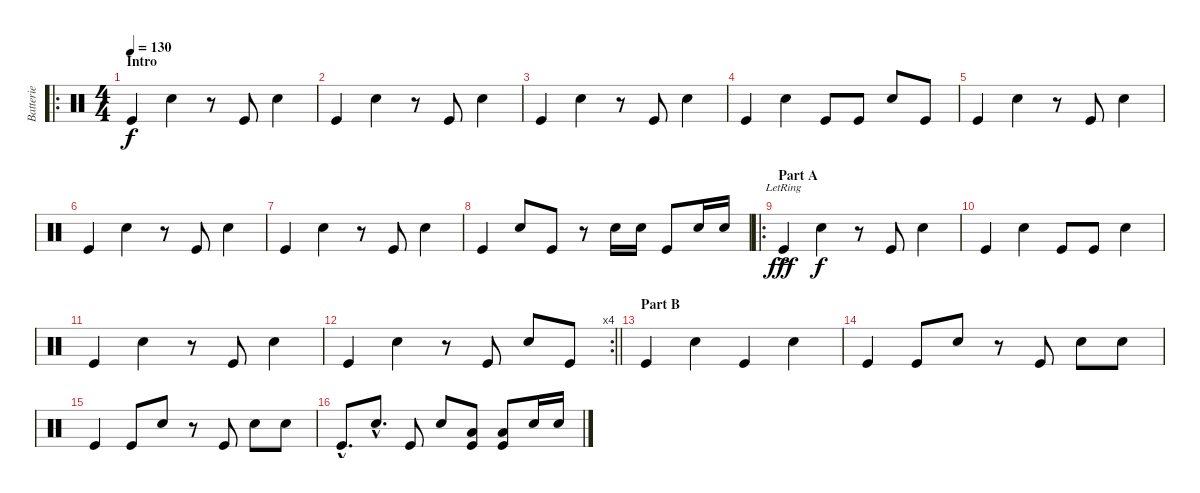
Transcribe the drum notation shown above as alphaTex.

\track ("Batterie" "Batterie") {instrument percussion}
\staff {score}
\articulation defaults
\ro
\ts (4 4)
\section ("" "Intro")
\tempo 130
\clef neutral
\ks c "Kick (hit)".4{dy f} "Electric Snare (hit)".4
r.8 "Kick (hit)".8 "Electric Snare (hit)".4 |
"Kick (hit)".4 "Electric Snare (hit)".4 r.8 "Kick (hit)".8 "Electric Snare (hit)".4 |
"Kick (hit)".4 "Electric Snare (hit)".4 r.8 "Kick (hit)".8 "Electric Snare (hit)".4 |
"Kick (hit)".4 "Electric Snare (hit)".4 "Kick (hit)".8 "Kick (hit)".8 "Electric Snare (hit)".8 "Kick (hit)".8 |
"Kick (hit)".4 "Electric Snare (hit)".4 r.8 "Kick (hit)".8 "Electric Snare (hit)".4 |
"Kick (hit)".4 "Electric Snare (hit)".4 r.8 "Kick (hit)".8 "Electric Snare (hit)".4 |
"Kick (hit)".4 "Electric Snare (hit)".4 r.8 "Kick (hit)".8 "Electric Snare (hit)".4 |
"Kick (hit)".4 "Electric Snare (hit)".8 "Kick (hit)".8 r.8 "Electric Snare (hit)".16 "Electric Snare (hit)".16 "Kick (hit)".8 "Electric Snare (hit)".16 "Electric Snare (hit)".16 |
\ro
\section ("" "Part A")
"Kick (hit)"{ac lr}.4{dy fff} "Electric Snare (hit)".4{dy f} r.8 "Kick (hit)".8 "Electric Snare (hit)".4 |
"Kick (hit)".4 "Electric Snare (hit)".4 "Kick (hit)".8 "Kick (hit)".8 "Electric Snare (hit)".4 |
"Kick (hit)".4 "Electric Snare (hit)".4 r.8 "Kick (hit)".8 "Electric Snare (hit)".4 |
\rc 4
\barLineRight lightlight "Kick (hit)".4 "Electric Snare (hit)".4
r.8 "Kick (hit)".8 "Electric Snare (hit)".8 "Kick (hit)".8 |
\section ("" "Part B")
"Kick (hit)".4 "Electric Snare (hit)".4 "Kick (hit)".4 "Electric Snare (hit)".4 |
"Kick (hit)".4 "Kick (hit)".8 "Electric Snare (hit)".8 r.8 "Kick (hit)".8 "Electric Snare (hit)".8 "Electric Snare (hit)".8 |
"Kick (hit)".4 "Kick (hit)".8 "Electric Snare (hit)".8 r.8 "Kick (hit)".8 "Electric Snare (hit)".8 "Electric Snare (hit)".8 |
"Kick (hit)"{hac}.8{d} "Electric Snare (hit)"{hac}.8{d} "Kick (hit)".8 "Electric Snare (hit)".8 ("Low Tom (hit)" "Kick (hit)").8 ("Low Tom (hit)" "Kick (hit)").8 "Electric Snare (hit)".16 "Electric Snare (hit)".16
